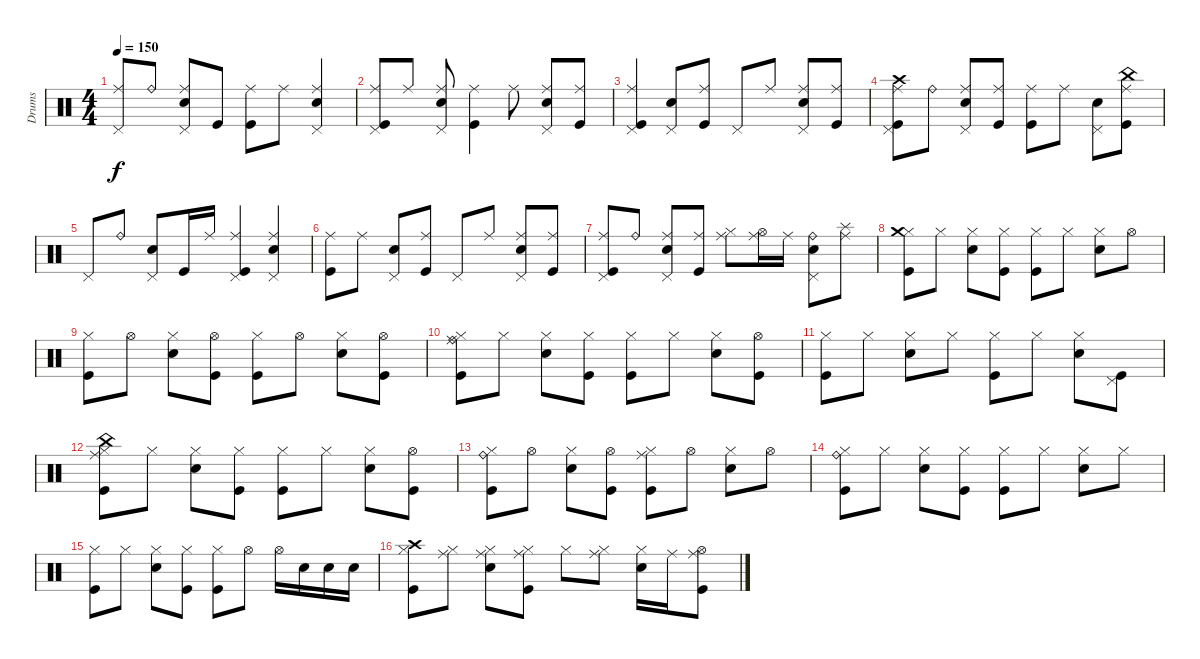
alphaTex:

\track ("Drums" "Drums") {instrument percussion}
\staff {score}
\articulation defaults
\ts (4 4)
\tempo 150
\clef neutral
\ks c
("Pedal Hi-Hat (hit)" "Ride (middle)").8{dy f} "Ride (bell)".8 ("Pedal Hi-Hat (hit)" "Ride (middle)" "Snare (hit) 2").8 "Kick (hit)".8 ("Kick (hit)" "Ride (middle)").8 "Ride (middle)".8 ("Ride (middle)" "Snare (hit) 2" "Pedal Hi-Hat (hit)").4 |
("Pedal Hi-Hat (hit)" "Ride (middle)" "Kick (hit)").8 "Ride (middle)".8 ("Ride (middle)" "Snare (hit) 2" "Pedal Hi-Hat (hit)").8 ("Kick (hit)" "Ride (middle)").4 "Ride (middle)".8 ("Ride (middle)" "Snare (hit) 2" "Pedal Hi-Hat (hit)").8 ("Kick (hit)" "Ride (middle)").8 |
("Ride (middle)" "Kick (hit)" "Pedal Hi-Hat (hit)").4 ("Snare (hit) 2" "Pedal Hi-Hat (hit)").8 ("Kick (hit)" "Ride (middle)").8 "Pedal Hi-Hat (hit)".8 "Ride (middle)".8 ("Snare (hit) 2" "Pedal Hi-Hat (hit)" "Ride (middle)").8 ("Kick (hit)" "Ride (middle)").8 |
("Kick (hit)" "Pedal Hi-Hat (hit)" "Crash high (hit)" "Ride (middle)").8 "Ride (bell)".8 ("Snare (hit) 2" "Pedal Hi-Hat (hit)" "Ride (middle)").8 ("Kick (hit)" "Ride (middle)").8 ("Kick (hit)" "Ride (middle)").8 "Ride (middle)".8 ("Snare (hit) 2" "Pedal Hi-Hat (hit)").8 ("Kick (hit)" "Ride (middle)" "China (hit)").8 |
"Pedal Hi-Hat (hit)".8 "Ride (bell)".8 ("Snare (hit) 2" "Pedal Hi-Hat (hit)").8 "Kick (hit)".16 "Ride (middle)".16 ("Pedal Hi-Hat (hit)" "Ride (middle)" "Kick (hit)").4 ("Ride (middle)" "Snare (hit) 2" "Pedal Hi-Hat (hit)").4 |
("Kick (hit)" "Ride (middle)").8 "Ride (middle)".8 ("Snare (hit) 2" "Pedal Hi-Hat (hit)").8 ("Kick (hit)" "Ride (middle)").8 "Pedal Hi-Hat (hit)".8 "Ride (middle)".8 ("Snare (hit) 2" "Pedal Hi-Hat (hit)" "Ride (middle)").8 ("Kick (hit)" "Ride (middle)").8 |
("Kick (hit)" "Pedal Hi-Hat (hit)" "Ride (middle)").8 "Ride (bell)".8 ("Pedal Hi-Hat (hit)" "Ride (middle)" "Snare (hit) 2").8 ("Kick (hit)" "Ride (middle)").8 ("Hi-Hat (closed)" "Ride (middle)").8 ("Hi-Hat (open)" "Ride (middle)").16 "Ride (middle)".16 ("Snare (hit) 2" "Pedal Hi-Hat (hit)" "Ride (bell)").8 ("Ride (middle)" "Splash (hit)").8 |
("Kick (hit)" "Hi-Hat (closed)" "Crash medium (hit)").8 "Hi-Hat (closed)".8 ("Snare (hit) 2" "Hi-Hat (closed)").8 ("Kick (hit)" "Hi-Hat (closed)").8 ("Kick (hit)" "Hi-Hat (closed)").8 "Hi-Hat (closed)".8 ("Snare (hit) 2" "Hi-Hat (closed)").8 "Hi-Hat (open)".8 |
("Kick (hit)" "Hi-Hat (closed)").8 "Hi-Hat (open)".8 ("Snare (hit) 2" "Hi-Hat (closed)").8 ("Kick (hit)" "Hi-Hat (open)").8 ("Kick (hit)" "Hi-Hat (closed)").8 "Hi-Hat (open)".8 ("Snare (hit) 2" "Hi-Hat (closed)").8 ("Kick (hit)" "Hi-Hat (open)").8 |
("Kick (hit)" "Hi-Hat (closed)" "Ride (middle)" "Ride (bell)").8 "Hi-Hat (closed)".8 ("Snare (hit) 2" "Hi-Hat (closed)").8 ("Kick (hit)" "Hi-Hat (closed)").8 ("Kick (hit)" "Hi-Hat (closed)").8 "Hi-Hat (closed)".8 ("Snare (hit) 2" "Hi-Hat (closed)").8 ("Kick (hit)" "Hi-Hat (open)").8 |
("Kick (hit)" "Hi-Hat (closed)").8 "Hi-Hat (closed)".8 ("Snare (hit) 2" "Hi-Hat (closed)").8 "Hi-Hat (closed)".8 ("Kick (hit)" "Hi-Hat (closed)").8 "Hi-Hat (closed)".8 ("Snare (hit) 2" "Hi-Hat (closed)").8 ("Kick (hit)" "Pedal Hi-Hat (hit)").8 |
("Kick (hit)" "Hi-Hat (closed)" "Ride (middle)" "China (hit)").8 "Hi-Hat (closed)".8 ("Snare (hit) 2" "Hi-Hat (closed)").8 ("Kick (hit)" "Hi-Hat (closed)").8 ("Kick (hit)" "Hi-Hat (closed)").8 "Hi-Hat (closed)".8 ("Snare (hit) 2" "Hi-Hat (closed)").8 ("Kick (hit)" "Hi-Hat (open)").8 |
("Kick (hit)" "Hi-Hat (closed)" "Ride (bell)").8 "Hi-Hat (open)".8 ("Snare (hit) 2" "Hi-Hat (closed)").8 ("Kick (hit)" "Hi-Hat (open)").8 ("Ride (middle)" "Kick (hit)" "Hi-Hat (closed)").8 "Hi-Hat (open)".8 ("Snare (hit) 2" "Hi-Hat (closed)").8 "Hi-Hat (open)".8 |
("Kick (hit)" "Hi-Hat (closed)" "Ride (bell)").8 "Hi-Hat (closed)".8 ("Snare (hit) 2" "Hi-Hat (closed)").8 ("Kick (hit)" "Hi-Hat (closed)").8 ("Kick (hit)" "Hi-Hat (closed)").8 "Hi-Hat (closed)".8 ("Snare (hit) 2" "Hi-Hat (closed)").8 "Hi-Hat (closed)".8 |
("Kick (hit)" "Hi-Hat (closed)").8 "Hi-Hat (closed)".8 ("Snare (hit) 2" "Hi-Hat (closed)").8 ("Kick (hit)" "Hi-Hat (closed)").8 ("Kick (hit)" "Hi-Hat (closed)").8 "Hi-Hat (open)".8 "Hi-Hat (open)".16 "Snare (hit) 2".16 "Snare (hit) 2".16 "Snare (hit) 2".16 |
("Kick (hit)" "Hi-Hat (closed)" "Crash high (hit)").8 ("Hi-Hat (closed)" "Ride (middle)").8 ("Ride (middle)" "Snare (hit) 2" "Hi-Hat (closed)").8 ("Kick (hit)" "Hi-Hat (closed)" "Ride (middle)").8 "Hi-Hat (closed)".8 ("Hi-Hat (closed)" "Ride (middle)").8 ("Snare (hit) 2" "Hi-Hat (closed)").16 "Ride (middle)".16 ("Ride (middle)" "Kick (hit)" "Hi-Hat (open)").8
